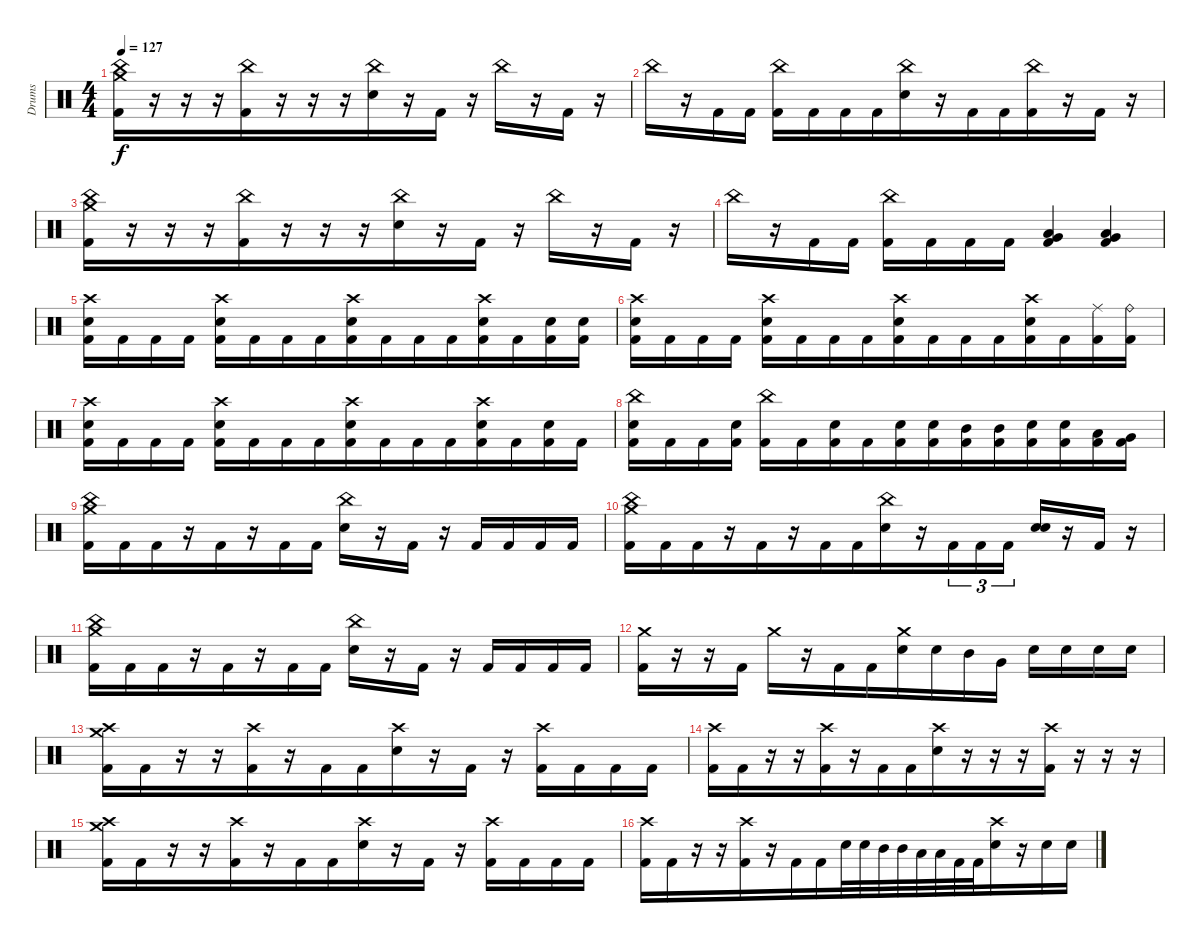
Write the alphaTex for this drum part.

\track ("Drums" "Drums") {instrument percussion}
\staff {score}
\articulation defaults
\ts (4 4)
\tempo 127
\clef neutral
\ks c
("Crash medium (hit)" "China (hit)" "Kick (hit) 2").16{dy f beam merge} r.16{beam merge} r.16{beam merge} r.16 ("China (hit)" "Kick (hit) 2").16{beam merge} r.16 r.16 r.16{beam merge} ("China (hit)" "Electric Snare (hit)").16{beam merge} r.16 "Kick (hit) 2".16 r.16{beam merge} "China (hit)".16 r.16{beam merge} "Kick (hit) 2".16{beam merge} r.16 |
"China (hit)".16{beam merge} r.16{beam merge} "Kick (hit) 2".16{beam merge} "Kick (hit) 2".16 ("China (hit)" "Kick (hit) 2").16{beam merge} "Kick (hit) 2".16 "Kick (hit) 2".16 "Kick (hit) 2".16{beam merge} ("China (hit)" "Electric Snare (hit)").16{beam merge} r.16 "Kick (hit) 2".16 "Kick (hit) 2".16{beam merge} ("China (hit)" "Kick (hit) 2").16 r.16{beam merge} "Kick (hit) 2".16 r.16 |
("Crash medium (hit)" "China (hit)" "Kick (hit) 2").16{beam merge} r.16{beam merge} r.16{beam merge} r.16 ("China (hit)" "Kick (hit) 2").16{beam merge} r.16 r.16 r.16{beam merge} ("China (hit)" "Electric Snare (hit)").16{beam merge} r.16 "Kick (hit) 2".16 r.16{beam merge} "China (hit)".16 r.16{beam merge} "Kick (hit) 2".16{beam merge} r.16 |
"China (hit)".16{beam merge} r.16{beam merge} "Kick (hit) 2".16{beam merge} "Kick (hit) 2".16 ("China (hit)" "Kick (hit) 2").16{beam merge} "Kick (hit) 2".16 "Kick (hit) 2".16 "Kick (hit) 2".16 ("Low Tom (hit)" "Very Low Tom (hit)" "Kick (hit) 2").4 ("Low Tom (hit)" "Very Low Tom (hit)" "Kick (hit) 2").4 |
("Crash high (hit)" "Electric Snare (hit)" "Kick (hit) 2").16{beam merge} "Kick (hit) 2".16{beam merge} "Kick (hit) 2".16{beam merge} "Kick (hit) 2".16 ("Crash high (hit)" "Electric Snare (hit)" "Kick (hit) 2").16{beam merge} "Kick (hit) 2".16 "Kick (hit) 2".16 "Kick (hit) 2".16{beam merge} ("Crash high (hit)" "Electric Snare (hit)" "Kick (hit) 2").16{beam merge} "Kick (hit) 2".16 "Kick (hit) 2".16 "Kick (hit) 2".16{beam merge} ("Crash high (hit)" "Electric Snare (hit)" "Kick (hit) 2").16 "Kick (hit) 2".16{beam merge} ("Electric Snare (hit)" "Kick (hit) 2").16{beam merge} ("Electric Snare (hit)" "Kick (hit) 2").16 |
("Crash high (hit)" "Electric Snare (hit)" "Kick (hit) 2").16{beam merge} "Kick (hit) 2".16{beam merge} "Kick (hit) 2".16{beam merge} "Kick (hit) 2".16 ("Crash high (hit)" "Electric Snare (hit)" "Kick (hit) 2").16{beam merge} "Kick (hit) 2".16 "Kick (hit) 2".16 "Kick (hit) 2".16{beam merge} ("Crash high (hit)" "Electric Snare (hit)" "Kick (hit) 2").16{beam merge} "Kick (hit) 2".16 "Kick (hit) 2".16 "Kick (hit) 2".16{beam merge} ("Crash high (hit)" "Electric Snare (hit)" "Kick (hit) 2").16 "Kick (hit) 2".16{beam merge} ("Ride (middle)" "Kick (hit) 2").16{beam merge} ("Ride (bell)" "Kick (hit) 2").16 |
("Crash high (hit)" "Electric Snare (hit)" "Kick (hit) 2").16{beam merge} "Kick (hit) 2".16{beam merge} "Kick (hit) 2".16{beam merge} "Kick (hit) 2".16 ("Crash high (hit)" "Electric Snare (hit)" "Kick (hit) 2").16{beam merge} "Kick (hit) 2".16 "Kick (hit) 2".16 "Kick (hit) 2".16{beam merge} ("Crash high (hit)" "Electric Snare (hit)" "Kick (hit) 2").16{beam merge} "Kick (hit) 2".16 "Kick (hit) 2".16 "Kick (hit) 2".16{beam merge} ("Crash high (hit)" "Electric Snare (hit)" "Kick (hit) 2").16 "Kick (hit) 2".16{beam merge} ("Electric Snare (hit)" "Kick (hit) 2").16{beam merge} "Kick (hit) 2".16 |
("China (hit)" "Electric Snare (hit)" "Kick (hit) 2").16{beam merge} "Kick (hit) 2".16{beam merge} "Kick (hit) 2".16{beam merge} ("Electric Snare (hit)" "Kick (hit) 2").16 ("China (hit)" "Kick (hit) 2").16{beam merge} "Kick (hit) 2".16 ("Electric Snare (hit)" "Kick (hit) 2").16 "Kick (hit) 2".16{beam merge} ("Electric Snare (hit)" "Kick (hit) 2").16{beam merge} ("Electric Snare (hit)" "Kick (hit) 2").16 ("Mid Tom (hit)" "Kick (hit) 2").16 ("Mid Tom (hit)" "Kick (hit) 2").16{beam merge} ("Electric Snare (hit)" "Kick (hit) 2").16 ("Electric Snare (hit)" "Kick (hit) 2").16{beam merge} ("Low Tom (hit)" "Kick (hit) 2").16{beam merge} ("Very Low Tom (hit)" "Kick (hit) 2").16 |
("Crash medium (hit)" "China (hit)" "Kick (hit) 2").16{beam merge} "Kick (hit) 2".16{beam merge} "Kick (hit) 2".16{beam merge} r.16 "Kick (hit) 2".16{beam merge} r.16{beam merge} "Kick (hit) 2".16 "Kick (hit) 2".16 ("China (hit)" "Electric Snare (hit)").16{beam merge} r.16 "Kick (hit) 2".16 r.16{beam merge} "Kick (hit) 2".16 "Kick (hit) 2".16{beam merge} "Kick (hit) 2".16{beam merge} "Kick (hit) 2".16 |
("Crash medium (hit)" "China (hit)" "Kick (hit) 2").16{beam merge} "Kick (hit) 2".16{beam merge} "Kick (hit) 2".16{beam merge} r.16 "Kick (hit) 2".16{beam merge} r.16 "Kick (hit) 2".16 "Kick (hit) 2".16{beam merge} ("China (hit)" "Electric Snare (hit)").16{beam merge} r.16 "Kick (hit) 2".16{tu (3 2)} "Kick (hit) 2".16{tu (3 2) beam merge} "Kick (hit) 2".16{tu (3 2)} ("Electric Snare (hit)" "Electric Snare (hit)").16{bu 240 beam merge} r.16{beam merge} "Kick (hit) 2".16 r.16 |
("Crash medium (hit)" "China (hit)" "Kick (hit) 2").16{beam merge} "Kick (hit) 2".16{beam merge} "Kick (hit) 2".16{beam merge} r.16 "Kick (hit) 2".16{beam merge} r.16{beam merge} "Kick (hit) 2".16 "Kick (hit) 2".16 ("China (hit)" "Electric Snare (hit)").16{beam merge} r.16 "Kick (hit) 2".16 r.16{beam merge} "Kick (hit) 2".16 "Kick (hit) 2".16{beam merge} "Kick (hit) 2".16{beam merge} "Kick (hit) 2".16 |
("Crash medium (hit)" "Kick (hit) 2").16{beam merge} r.16{beam merge} r.16{beam merge} "Kick (hit) 2".16 "Crash medium (hit)".16{beam merge} r.16 "Kick (hit) 2".16 "Kick (hit) 2".16{beam merge} ("Crash medium (hit)" "Electric Snare (hit)").16{beam merge} "Electric Snare (hit)".16 "Mid Tom (hit)".16{beam merge} "Very Low Tom (hit)".16 "Electric Snare (hit)".16 "Electric Snare (hit)".16{beam merge} "Electric Snare (hit)".16{beam merge} "Electric Snare (hit)".16 |
("Crash medium (hit)" "Crash high (hit)" "Kick (hit) 2").16{beam merge} "Kick (hit) 2".16{beam merge} r.16{beam merge} r.16 ("Crash high (hit)" "Kick (hit) 2").16{beam merge} r.16 "Kick (hit) 2".16 "Kick (hit) 2".16{beam merge} ("Crash high (hit)" "Electric Snare (hit)").16{beam merge} r.16 "Kick (hit) 2".16 r.16{beam merge} ("Crash high (hit)" "Kick (hit) 2").16 "Kick (hit) 2".16{beam merge} "Kick (hit) 2".16{beam merge} "Kick (hit) 2".16 |
("Crash high (hit)" "Kick (hit) 2").16{beam merge} "Kick (hit) 2".16{beam merge} r.16{beam merge} r.16 ("Crash high (hit)" "Kick (hit) 2").16{beam merge} r.16 "Kick (hit) 2".16 "Kick (hit) 2".16{beam merge} ("Crash high (hit)" "Electric Snare (hit)").16{beam merge} r.16 r.16 r.16{beam merge} ("Crash high (hit)" "Kick (hit) 2").16 r.16{beam merge} r.16{beam merge} r.16 |
("Crash medium (hit)" "Crash high (hit)" "Kick (hit) 2").16{beam merge} "Kick (hit) 2".16{beam merge} r.16{beam merge} r.16 ("Crash high (hit)" "Kick (hit) 2").16{beam merge} r.16 "Kick (hit) 2".16 "Kick (hit) 2".16{beam merge} ("Crash high (hit)" "Electric Snare (hit)").16{beam merge} r.16 "Kick (hit) 2".16 r.16{beam merge} ("Crash high (hit)" "Kick (hit) 2").16 "Kick (hit) 2".16{beam merge} "Kick (hit) 2".16{beam merge} "Kick (hit) 2".16 |
("Crash high (hit)" "Kick (hit) 2").16{beam merge} "Kick (hit) 2".16{beam merge} r.16{beam merge} r.16 ("Crash high (hit)" "Kick (hit) 2").16{beam merge} r.16 "Kick (hit) 2".16 "Kick (hit) 2".16{beam merge} "Electric Snare (hit)".32{beam merge} "Electric Snare (hit)".32{beam merge} "Mid Tom (hit)".32{beam merge} "Mid Tom (hit)".32 "Low Tom (hit)".32{beam merge} "Low Tom (hit)".32 "Kick (hit) 2".32 "Kick (hit) 2".32{beam merge} ("Crash high (hit)" "Electric Snare (hit)").16 r.16{beam merge} "Electric Snare (hit)".16{beam merge} "Electric Snare (hit)".16
